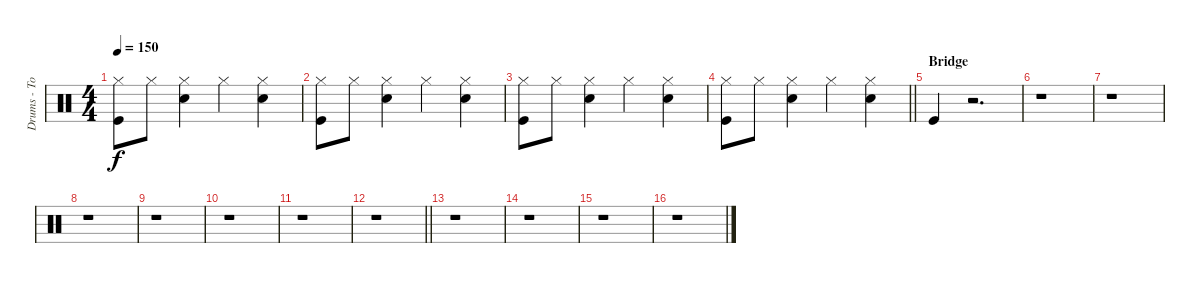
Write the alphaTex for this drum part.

\track ("Drums - Tobi Häuser" "Drums - To") {instrument percussion}
\staff {score}
\articulation defaults
\ts (4 4)
\tempo 150
\clef neutral
\ks c
("Hi-Hat (closed)" "Kick (hit)").8{dy f} "Hi-Hat (closed)".8 ("Hi-Hat (closed)" "Snare (hit) 2").4 "Hi-Hat (closed)".4 ("Hi-Hat (closed)" "Snare (hit) 2").4 |
("Hi-Hat (closed)" "Kick (hit)").8 "Hi-Hat (closed)".8 ("Hi-Hat (closed)" "Snare (hit) 2").4 "Hi-Hat (closed)".4 ("Hi-Hat (closed)" "Snare (hit) 2").4 |
("Hi-Hat (closed)" "Kick (hit)").8 "Hi-Hat (closed)".8 ("Hi-Hat (closed)" "Snare (hit) 2").4 "Hi-Hat (closed)".4 ("Hi-Hat (closed)" "Snare (hit) 2").4 |
\barLineRight lightlight
("Hi-Hat (closed)" "Kick (hit)").8 "Hi-Hat (closed)".8 ("Hi-Hat (closed)" "Snare (hit) 2").4 "Hi-Hat (closed)".4 ("Hi-Hat (closed)" "Snare (hit) 2").4 |
\section ("" "Bridge")
"Kick (hit)".4 r.2{d} |
r.1 |
r.1 |
r.1 |
r.1 |
r.1 |
r.1 |
\barLineRight lightlight
r.1 |
r.1 |
r.1 |
r.1 |
r.1
